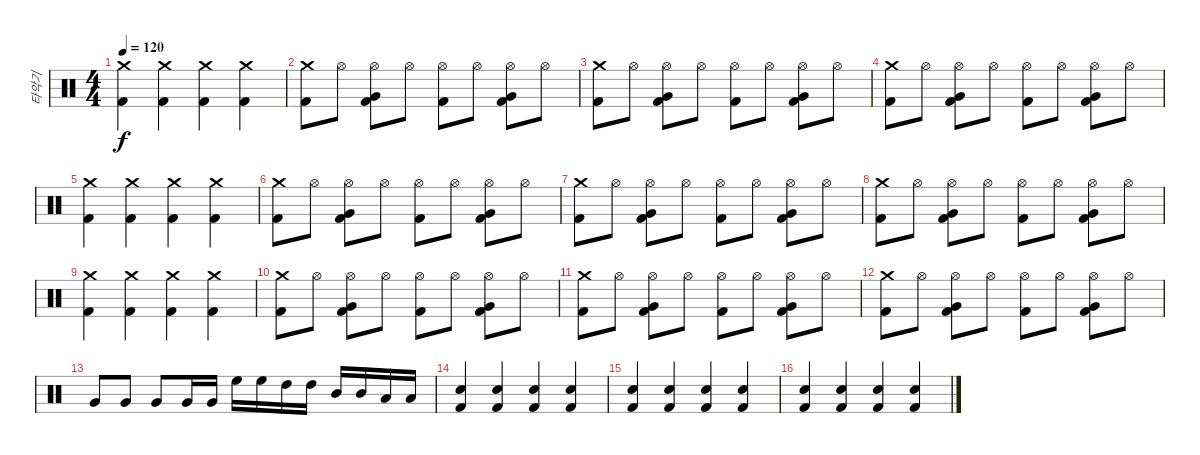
\track ("타악기" "타악기") {instrument percussion}
\staff {score}
\articulation defaults
\ts (4 4)
\tempo 120
\clef neutral
\ks c
("Kick (hit) 2" "Crash medium (hit)").4{dy f} ("Kick (hit) 2" "Crash medium (hit)").4 ("Kick (hit) 2" "Crash medium (hit)").4 ("Kick (hit) 2" "Crash medium (hit)").4 |
("Kick (hit) 2" "Crash medium (hit)").8 "Hi-Hat (open)".8 ("Kick (hit) 2" "Very Low Tom (hit)" "Hi-Hat (open)").8 "Hi-Hat (open)".8 ("Kick (hit) 2" "Hi-Hat (open)").8 "Hi-Hat (open)".8 ("Kick (hit) 2" "Very Low Tom (hit)" "Hi-Hat (open)").8 "Hi-Hat (open)".8 |
("Kick (hit) 2" "Crash medium (hit)").8 "Hi-Hat (open)".8 ("Kick (hit) 2" "Very Low Tom (hit)" "Hi-Hat (open)").8 "Hi-Hat (open)".8 ("Kick (hit) 2" "Hi-Hat (open)").8 "Hi-Hat (open)".8 ("Kick (hit) 2" "Very Low Tom (hit)" "Hi-Hat (open)").8 "Hi-Hat (open)".8 |
("Kick (hit) 2" "Crash medium (hit)").8 "Hi-Hat (open)".8 ("Kick (hit) 2" "Very Low Tom (hit)" "Hi-Hat (open)").8 "Hi-Hat (open)".8 ("Kick (hit) 2" "Hi-Hat (open)").8 "Hi-Hat (open)".8 ("Kick (hit) 2" "Very Low Tom (hit)" "Hi-Hat (open)").8 "Hi-Hat (open)".8 |
("Kick (hit) 2" "Crash medium (hit)").4 ("Kick (hit) 2" "Crash medium (hit)").4 ("Kick (hit) 2" "Crash medium (hit)").4 ("Kick (hit) 2" "Crash medium (hit)").4 |
("Kick (hit) 2" "Crash medium (hit)").8 "Hi-Hat (open)".8 ("Kick (hit) 2" "Very Low Tom (hit)" "Hi-Hat (open)").8 "Hi-Hat (open)".8 ("Kick (hit) 2" "Hi-Hat (open)").8 "Hi-Hat (open)".8 ("Kick (hit) 2" "Very Low Tom (hit)" "Hi-Hat (open)").8 "Hi-Hat (open)".8 |
("Kick (hit) 2" "Crash medium (hit)").8 "Hi-Hat (open)".8 ("Kick (hit) 2" "Very Low Tom (hit)" "Hi-Hat (open)").8 "Hi-Hat (open)".8 ("Kick (hit) 2" "Hi-Hat (open)").8 "Hi-Hat (open)".8 ("Kick (hit) 2" "Very Low Tom (hit)" "Hi-Hat (open)").8 "Hi-Hat (open)".8 |
("Kick (hit) 2" "Crash medium (hit)").8 "Hi-Hat (open)".8 ("Kick (hit) 2" "Very Low Tom (hit)" "Hi-Hat (open)").8 "Hi-Hat (open)".8 ("Kick (hit) 2" "Hi-Hat (open)").8 "Hi-Hat (open)".8 ("Kick (hit) 2" "Very Low Tom (hit)" "Hi-Hat (open)").8 "Hi-Hat (open)".8 |
("Kick (hit) 2" "Crash medium (hit)").4 ("Kick (hit) 2" "Crash medium (hit)").4 ("Kick (hit) 2" "Crash medium (hit)").4 ("Kick (hit) 2" "Crash medium (hit)").4 |
("Kick (hit) 2" "Crash medium (hit)").8 "Hi-Hat (open)".8 ("Kick (hit) 2" "Very Low Tom (hit)" "Hi-Hat (open)").8 "Hi-Hat (open)".8 ("Kick (hit) 2" "Hi-Hat (open)").8 "Hi-Hat (open)".8 ("Kick (hit) 2" "Very Low Tom (hit)" "Hi-Hat (open)").8 "Hi-Hat (open)".8 |
("Kick (hit) 2" "Crash medium (hit)").8 "Hi-Hat (open)".8 ("Kick (hit) 2" "Very Low Tom (hit)" "Hi-Hat (open)").8 "Hi-Hat (open)".8 ("Kick (hit) 2" "Hi-Hat (open)").8 "Hi-Hat (open)".8 ("Kick (hit) 2" "Very Low Tom (hit)" "Hi-Hat (open)").8 "Hi-Hat (open)".8 |
("Kick (hit) 2" "Crash medium (hit)").8 "Hi-Hat (open)".8 ("Kick (hit) 2" "Very Low Tom (hit)" "Hi-Hat (open)").8 "Hi-Hat (open)".8 ("Kick (hit) 2" "Hi-Hat (open)").8 "Hi-Hat (open)".8 ("Kick (hit) 2" "Very Low Tom (hit)" "Hi-Hat (open)").8 "Hi-Hat (open)".8 |
"Very Low Tom (hit)".8 "Very Low Tom (hit)".8 "Very Low Tom (hit)".8 "Very Low Tom (hit)".16 "Very Low Tom (hit)".16 "High Floor Tom (hit)".16 "High Floor Tom (hit)".16 "High Tom (hit)".16 "High Tom (hit)".16 "Mid Tom (hit)".16 "Mid Tom (hit)".16 "Low Tom (hit)".16 "Low Tom (hit)".16 |
("Kick (hit) 2" "Hand Clap (hit)").4 ("Kick (hit) 2" "Hand Clap (hit)").4 ("Kick (hit) 2" "Hand Clap (hit)").4 ("Kick (hit) 2" "Hand Clap (hit)").4 |
("Kick (hit) 2" "Hand Clap (hit)").4 ("Kick (hit) 2" "Hand Clap (hit)").4 ("Kick (hit) 2" "Hand Clap (hit)").4 ("Kick (hit) 2" "Hand Clap (hit)").4 |
("Kick (hit) 2" "Hand Clap (hit)").4 ("Kick (hit) 2" "Hand Clap (hit)").4 ("Kick (hit) 2" "Hand Clap (hit)").4 ("Kick (hit) 2" "Hand Clap (hit)").4
